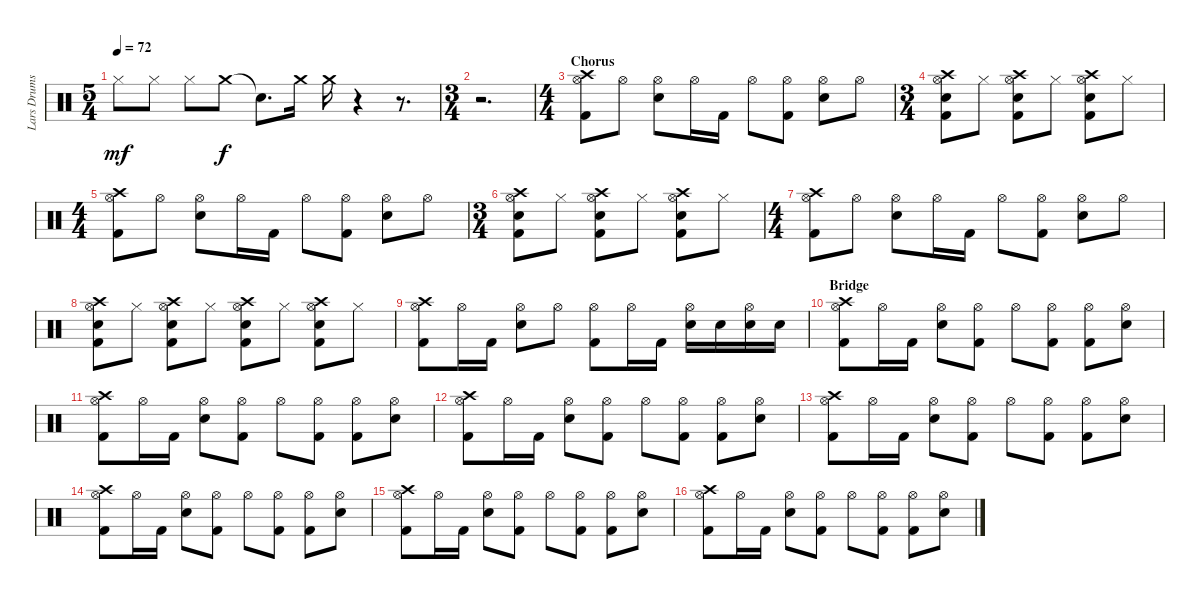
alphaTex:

\track ("Lars Drums" "Lars Drums") {instrument percussion}
\staff {score}
\articulation defaults
\ts (5 4)
\tempo 72
\clef neutral
\ks c "Hi-Hat (closed)".8{dy mf} "Hi-Hat (closed)".8 "Hi-Hat (closed)".8 "Crash medium (hit)".8{dy f} "Snare (hit)"{t}.8{d} "Crash medium (hit)".16 "Crash medium (hit)".16
r.4 r.8{d} |
\ts (3 4)
r.2{d} |
\ts (4 4)
\section ("" "Chorus")
("Kick (hit) 2" "Hi-Hat (open)" "Crash high (hit)").8 "Hi-Hat (open)".8 ("Snare (hit) 2" "Hi-Hat (open)").8 "Hi-Hat (open)".16 "Kick (hit) 2".16 "Hi-Hat (open)".8 ("Kick (hit) 2" "Hi-Hat (open)").8 ("Snare (hit) 2" "Hi-Hat (open)").8 "Hi-Hat (open)".8 |
\ts (3 4)
("Kick (hit) 2" "Snare (hit) 2" "Hi-Hat (open)" "Crash high (hit)").8 "Hi-Hat (closed)".8 ("Kick (hit) 2" "Snare (hit) 2" "Hi-Hat (open)" "Crash high (hit)").8 "Hi-Hat (closed)".8 ("Kick (hit) 2" "Snare (hit) 2" "Hi-Hat (open)" "Crash high (hit)").8 "Hi-Hat (closed)".8 |
\ts (4 4)
("Kick (hit) 2" "Hi-Hat (open)" "Crash high (hit)").8 "Hi-Hat (open)".8 ("Snare (hit) 2" "Hi-Hat (open)").8 "Hi-Hat (open)".16 "Kick (hit) 2".16 "Hi-Hat (open)".8 ("Kick (hit) 2" "Hi-Hat (open)").8 ("Snare (hit) 2" "Hi-Hat (open)").8 "Hi-Hat (open)".8 |
\ts (3 4)
("Kick (hit) 2" "Snare (hit) 2" "Hi-Hat (open)" "Crash high (hit)").8 "Hi-Hat (closed)".8 ("Kick (hit) 2" "Snare (hit) 2" "Hi-Hat (open)" "Crash high (hit)").8 "Hi-Hat (closed)".8 ("Kick (hit) 2" "Snare (hit) 2" "Hi-Hat (open)" "Crash high (hit)").8 "Hi-Hat (closed)".8 |
\ts (4 4)
("Kick (hit) 2" "Hi-Hat (open)" "Crash high (hit)").8 "Hi-Hat (open)".8 ("Snare (hit) 2" "Hi-Hat (open)").8 "Hi-Hat (open)".16 "Kick (hit) 2".16 "Hi-Hat (open)".8 ("Kick (hit) 2" "Hi-Hat (open)").8 ("Snare (hit) 2" "Hi-Hat (open)").8 "Hi-Hat (open)".8 |
("Kick (hit) 2" "Snare (hit) 2" "Hi-Hat (open)" "Crash high (hit)").8 "Hi-Hat (closed)".8 ("Kick (hit) 2" "Snare (hit) 2" "Hi-Hat (open)" "Crash high (hit)").8 "Hi-Hat (closed)".8 ("Kick (hit) 2" "Snare (hit) 2" "Hi-Hat (open)" "Crash high (hit)").8 "Hi-Hat (closed)".8 ("Kick (hit) 2" "Snare (hit) 2" "Hi-Hat (open)" "Crash high (hit)").8 "Hi-Hat (closed)".8 |
("Kick (hit) 2" "Hi-Hat (open)" "Crash high (hit)").8 "Hi-Hat (open)".16 "Kick (hit) 2".16 ("Snare (hit) 2" "Hi-Hat (open)").8 "Hi-Hat (open)".8 ("Kick (hit) 2" "Hi-Hat (open)").8 "Hi-Hat (open)".16 "Kick (hit) 2".16 ("Snare (hit) 2" "Hi-Hat (open)").16 "Snare (hit) 2".16 ("Snare (hit) 2" "Hi-Hat (open)").16 "Snare (hit) 2".16 |
\section ("" "Bridge")
("Kick (hit) 2" "Hi-Hat (open)" "Crash high (hit)").8 "Hi-Hat (open)".16 "Kick (hit) 2".16 ("Snare (hit) 2" "Hi-Hat (open)").8 ("Kick (hit) 2" "Hi-Hat (open)").8 "Hi-Hat (open)".8 ("Kick (hit) 2" "Hi-Hat (open)").8 ("Kick (hit) 2" "Hi-Hat (open)").8 ("Snare (hit) 2" "Hi-Hat (open)").8 |
("Kick (hit) 2" "Hi-Hat (open)" "Crash high (hit)").8 "Hi-Hat (open)".16 "Kick (hit) 2".16 ("Snare (hit) 2" "Hi-Hat (open)").8 ("Kick (hit) 2" "Hi-Hat (open)").8 "Hi-Hat (open)".8 ("Kick (hit) 2" "Hi-Hat (open)").8 ("Kick (hit) 2" "Hi-Hat (open)").8 ("Snare (hit) 2" "Hi-Hat (open)").8 |
("Kick (hit) 2" "Hi-Hat (open)" "Crash high (hit)").8 "Hi-Hat (open)".16 "Kick (hit) 2".16 ("Snare (hit) 2" "Hi-Hat (open)").8 ("Kick (hit) 2" "Hi-Hat (open)").8 "Hi-Hat (open)".8 ("Kick (hit) 2" "Hi-Hat (open)").8 ("Kick (hit) 2" "Hi-Hat (open)").8 ("Snare (hit) 2" "Hi-Hat (open)").8 |
("Kick (hit) 2" "Hi-Hat (open)" "Crash high (hit)").8 "Hi-Hat (open)".16 "Kick (hit) 2".16 ("Snare (hit) 2" "Hi-Hat (open)").8 ("Kick (hit) 2" "Hi-Hat (open)").8 "Hi-Hat (open)".8 ("Kick (hit) 2" "Hi-Hat (open)").8 ("Kick (hit) 2" "Hi-Hat (open)").8 ("Snare (hit) 2" "Hi-Hat (open)").8 |
("Kick (hit) 2" "Hi-Hat (open)" "Crash high (hit)").8 "Hi-Hat (open)".16 "Kick (hit) 2".16 ("Snare (hit) 2" "Hi-Hat (open)").8 ("Kick (hit) 2" "Hi-Hat (open)").8 "Hi-Hat (open)".8 ("Kick (hit) 2" "Hi-Hat (open)").8 ("Kick (hit) 2" "Hi-Hat (open)").8 ("Snare (hit) 2" "Hi-Hat (open)").8 |
("Kick (hit) 2" "Hi-Hat (open)" "Crash high (hit)").8 "Hi-Hat (open)".16 "Kick (hit) 2".16 ("Snare (hit) 2" "Hi-Hat (open)").8 ("Kick (hit) 2" "Hi-Hat (open)").8 "Hi-Hat (open)".8 ("Kick (hit) 2" "Hi-Hat (open)").8 ("Kick (hit) 2" "Hi-Hat (open)").8 ("Snare (hit) 2" "Hi-Hat (open)").8 |
("Kick (hit) 2" "Hi-Hat (open)" "Crash high (hit)").8 "Hi-Hat (open)".16 "Kick (hit) 2".16 ("Snare (hit) 2" "Hi-Hat (open)").8 ("Kick (hit) 2" "Hi-Hat (open)").8 "Hi-Hat (open)".8 ("Kick (hit) 2" "Hi-Hat (open)").8 ("Kick (hit) 2" "Hi-Hat (open)").8 ("Snare (hit) 2" "Hi-Hat (open)").8
